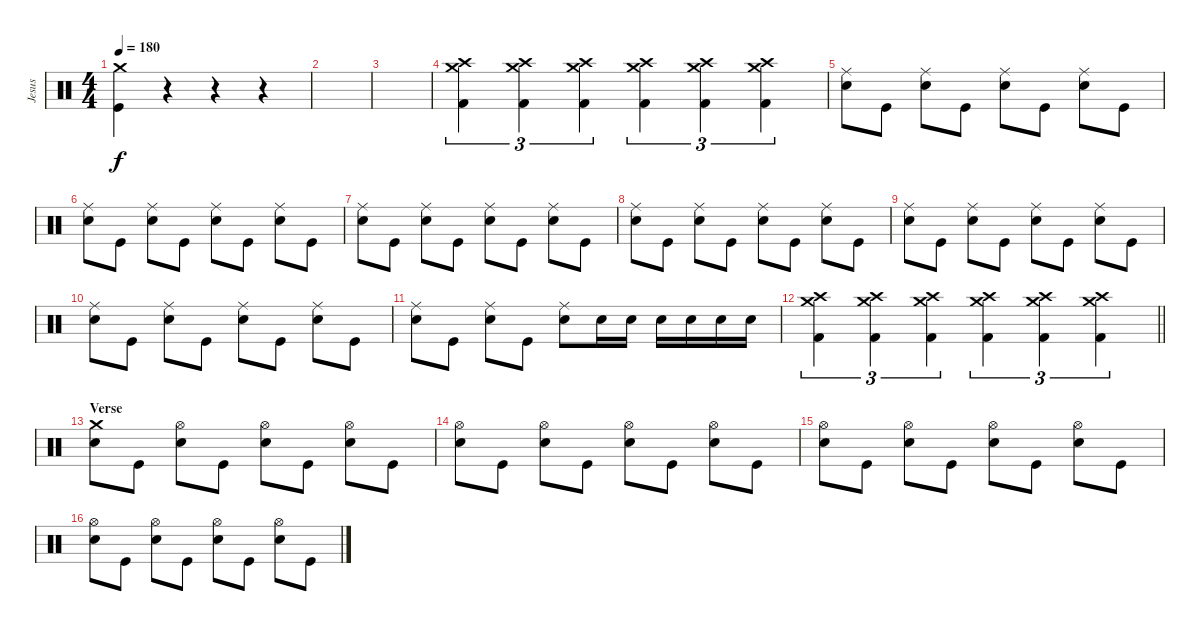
\track ("Jesus" "Jesus") {instrument percussion}
\staff {score}
\articulation defaults
\ts (4 4)
\tempo 180
\clef neutral
\ks c
("Crash medium (hit)" "Kick (hit)").4{dy f} r.4 r.4 r.4 |
|
|
("Crash high (hit)" "Crash medium (hit)" "Kick (hit) 2").4{tu (3 2)} ("Crash high (hit)" "Crash medium (hit)" "Kick (hit) 2").4{tu (3 2)} ("Crash high (hit)" "Crash medium (hit)" "Kick (hit) 2").4{tu (3 2)} ("Crash high (hit)" "Crash medium (hit)" "Kick (hit) 2").4{tu (3 2)} ("Crash high (hit)" "Crash medium (hit)" "Kick (hit) 2").4{tu (3 2)} ("Crash high (hit)" "Crash medium (hit)" "Kick (hit) 2").4{tu (3 2)} |
("Ride (middle)" "Snare (hit) 2").8 "Kick (hit)".8 ("Ride (middle)" "Snare (hit) 2").8 "Kick (hit)".8 ("Ride (middle)" "Snare (hit) 2").8 "Kick (hit)".8 ("Ride (middle)" "Snare (hit) 2").8 "Kick (hit)".8 |
("Ride (middle)" "Snare (hit) 2").8 "Kick (hit)".8 ("Ride (middle)" "Snare (hit) 2").8 "Kick (hit)".8 ("Ride (middle)" "Snare (hit) 2").8 "Kick (hit)".8 ("Ride (middle)" "Snare (hit) 2").8 "Kick (hit)".8 |
("Ride (middle)" "Snare (hit) 2").8 "Kick (hit)".8 ("Ride (middle)" "Snare (hit) 2").8 "Kick (hit)".8 ("Ride (middle)" "Snare (hit) 2").8 "Kick (hit)".8 ("Ride (middle)" "Snare (hit) 2").8 "Kick (hit)".8 |
("Ride (middle)" "Snare (hit) 2").8 "Kick (hit)".8 ("Ride (middle)" "Snare (hit) 2").8 "Kick (hit)".8 ("Ride (middle)" "Snare (hit) 2").8 "Kick (hit)".8 ("Ride (middle)" "Snare (hit) 2").8 "Kick (hit)".8 |
("Ride (middle)" "Snare (hit) 2").8 "Kick (hit)".8 ("Ride (middle)" "Snare (hit) 2").8 "Kick (hit)".8 ("Ride (middle)" "Snare (hit) 2").8 "Kick (hit)".8 ("Ride (middle)" "Snare (hit) 2").8 "Kick (hit)".8 |
("Ride (middle)" "Snare (hit) 2").8 "Kick (hit)".8 ("Ride (middle)" "Snare (hit) 2").8 "Kick (hit)".8 ("Ride (middle)" "Snare (hit) 2").8 "Kick (hit)".8 ("Ride (middle)" "Snare (hit) 2").8 "Kick (hit)".8 |
("Ride (middle)" "Snare (hit) 2").8 "Kick (hit)".8 ("Ride (middle)" "Snare (hit) 2").8 "Kick (hit)".8 ("Ride (middle)" "Snare (hit) 2").8 "Snare (hit) 2".16 "Snare (hit) 2".16 "Snare (hit) 2".16 "Snare (hit) 2".16 "Snare (hit) 2".16 "Snare (hit) 2".16 |
\barLineRight lightlight
("Crash high (hit)" "Crash medium (hit)" "Kick (hit) 2").4{tu (3 2)} ("Crash high (hit)" "Crash medium (hit)" "Kick (hit) 2").4{tu (3 2)} ("Crash high (hit)" "Crash medium (hit)" "Kick (hit) 2").4{tu (3 2)} ("Crash high (hit)" "Crash medium (hit)" "Kick (hit) 2").4{tu (3 2)} ("Crash high (hit)" "Crash medium (hit)" "Kick (hit) 2").4{tu (3 2)} ("Crash high (hit)" "Crash medium (hit)" "Kick (hit) 2").4{tu (3 2)} |
\section ("" "Verse")
("Crash medium (hit)" "Snare (hit) 2").8 "Kick (hit)".8 ("Hi-Hat (open)" "Snare (hit) 2").8 "Kick (hit)".8 ("Hi-Hat (open)" "Snare (hit) 2").8 "Kick (hit)".8 ("Hi-Hat (open)" "Snare (hit) 2").8 "Kick (hit)".8 |
("Hi-Hat (open)" "Snare (hit) 2").8 "Kick (hit)".8 ("Hi-Hat (open)" "Snare (hit) 2").8 "Kick (hit)".8 ("Hi-Hat (open)" "Snare (hit) 2").8 "Kick (hit)".8 ("Hi-Hat (open)" "Snare (hit) 2").8 "Kick (hit)".8 |
("Hi-Hat (open)" "Snare (hit) 2").8 "Kick (hit)".8 ("Hi-Hat (open)" "Snare (hit) 2").8 "Kick (hit)".8 ("Hi-Hat (open)" "Snare (hit) 2").8 "Kick (hit)".8 ("Hi-Hat (open)" "Snare (hit) 2").8 "Kick (hit)".8 |
("Hi-Hat (open)" "Snare (hit) 2").8 "Kick (hit)".8 ("Hi-Hat (open)" "Snare (hit) 2").8 "Kick (hit)".8 ("Hi-Hat (open)" "Snare (hit) 2").8 "Kick (hit)".8 ("Hi-Hat (open)" "Snare (hit) 2").8 "Kick (hit)".8
